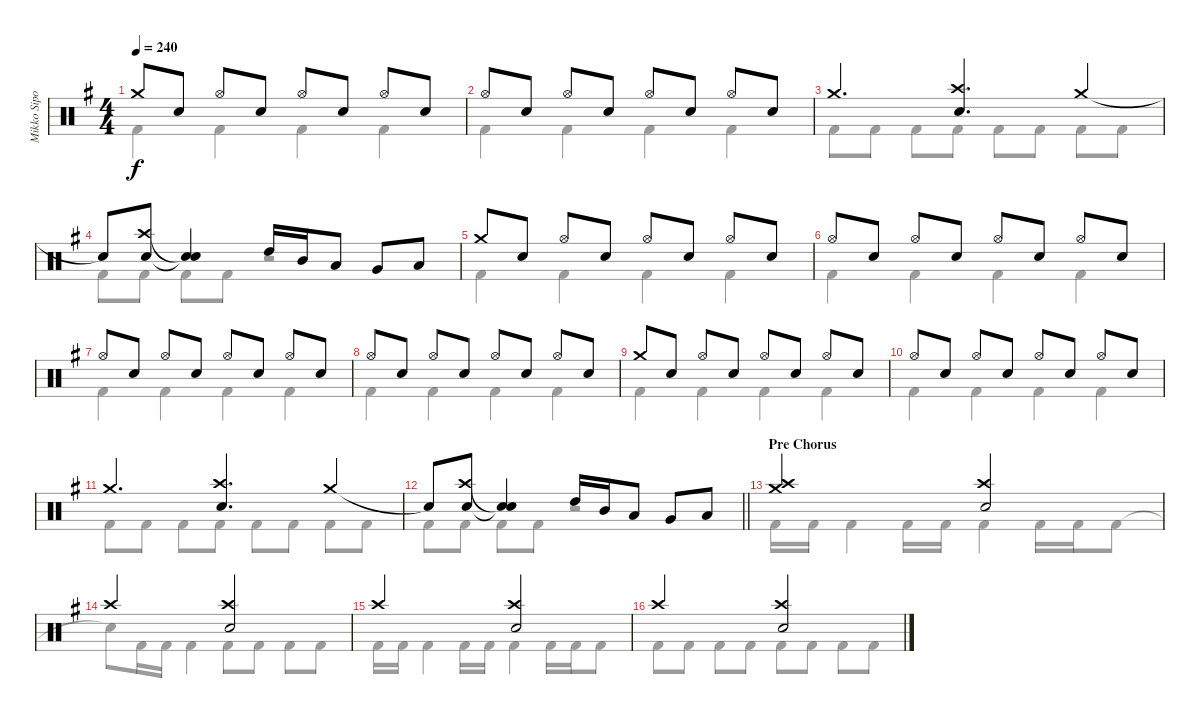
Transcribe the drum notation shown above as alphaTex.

\track ("Mikko Sipola (drums)" "Mikko Sipo") {instrument percussion}
\staff {score}
\articulation defaults
\voice
\ts (4 4)
\tempo 240
\clef neutral
\ks eminor "Crash medium (hit)".8{dy f} "Electric Snare (hit)".8 "Hi-Hat (open)".8 "Electric Snare (hit)".8 "Hi-Hat (open)".8 "Electric Snare (hit)".8 "Hi-Hat (open)".8 "Electric Snare (hit)".8
|
"Hi-Hat (open)".8 "Electric Snare (hit)".8 "Hi-Hat (open)".8 "Electric Snare (hit)".8 "Hi-Hat (open)".8 "Electric Snare (hit)".8 "Hi-Hat (open)".8 "Electric Snare (hit)".8 |
"Crash medium (hit)".4{d} ("Crash high (hit)" "Electric Snare (hit)").4{d} "Crash medium (hit)".4 |
"Snare (hit)"{t}.8 ("Crash high (hit)" "Electric Snare (hit)").8 ("Snare (hit)"{t} "Snare (hit)"{t}).4 "High Tom (hit)".16 "Mid Tom (hit)".16 "Low Tom (hit)".8 "Very Low Tom (hit)".8 "Low Floor Tom (hit)".8 |
"Crash medium (hit)".8 "Electric Snare (hit)".8 "Hi-Hat (open)".8 "Electric Snare (hit)".8 "Hi-Hat (open)".8 "Electric Snare (hit)".8 "Hi-Hat (open)".8 "Electric Snare (hit)".8 |
"Hi-Hat (open)".8 "Electric Snare (hit)".8 "Hi-Hat (open)".8 "Electric Snare (hit)".8 "Hi-Hat (open)".8 "Electric Snare (hit)".8 "Hi-Hat (open)".8 "Electric Snare (hit)".8 |
"Hi-Hat (open)".8 "Electric Snare (hit)".8 "Hi-Hat (open)".8 "Electric Snare (hit)".8 "Hi-Hat (open)".8 "Electric Snare (hit)".8 "Hi-Hat (open)".8 "Electric Snare (hit)".8 |
"Hi-Hat (open)".8 "Electric Snare (hit)".8 "Hi-Hat (open)".8 "Electric Snare (hit)".8 "Hi-Hat (open)".8 "Electric Snare (hit)".8 "Hi-Hat (open)".8 "Electric Snare (hit)".8 |
"Crash medium (hit)".8 "Electric Snare (hit)".8 "Hi-Hat (open)".8 "Electric Snare (hit)".8 "Hi-Hat (open)".8 "Electric Snare (hit)".8 "Hi-Hat (open)".8 "Electric Snare (hit)".8 |
"Hi-Hat (open)".8 "Electric Snare (hit)".8 "Hi-Hat (open)".8 "Electric Snare (hit)".8 "Hi-Hat (open)".8 "Electric Snare (hit)".8 "Hi-Hat (open)".8 "Electric Snare (hit)".8 |
"Crash medium (hit)".4{d} ("Crash high (hit)" "Electric Snare (hit)").4{d} "Crash medium (hit)".4 |
\barLineRight lightlight "Snare (hit)"{t}.8
("Crash high (hit)" "Electric Snare (hit)").8 ("Snare (hit)"{t} "Snare (hit)"{t}).4 "High Tom (hit)".16 "Mid Tom (hit)".16 "Low Tom (hit)".8 "Very Low Tom (hit)".8 "Low Floor Tom (hit)".8 |
\section ("" "Pre Chorus")
("Crash medium (hit)" "Crash high (hit)").2 ("Crash high (hit)" "Electric Snare (hit)").2 |
"Crash high (hit)".2 ("Electric Snare (hit)" "Crash high (hit)").2 |
"Crash high (hit)".2 ("Electric Snare (hit)" "Crash high (hit)").2 |
"Crash high (hit)".2 ("Electric Snare (hit)" "Crash high (hit)").2
\voice
\clef neutral
\ottava regular
\simile none
\ks eminor "Kick (hit) 2".4{dy f} "Kick (hit) 2".4 "Kick (hit) 2".4 "Kick (hit) 2".4
|
"Kick (hit) 2".4 "Kick (hit) 2".4 "Kick (hit) 2".4 "Kick (hit) 2".4 |
"Kick (hit) 2".8 "Kick (hit) 2".8 "Kick (hit) 2".8 "Kick (hit) 2".8 "Kick (hit) 2".8 "Kick (hit) 2".8 "Kick (hit) 2".8 "Kick (hit) 2".8 |
"Kick (hit) 2".8 "Kick (hit) 2".8 "Kick (hit) 2".8 "Kick (hit) 2".8 r.2 |
"Kick (hit) 2".4 "Kick (hit) 2".4 "Kick (hit) 2".4 "Kick (hit) 2".4 |
"Kick (hit) 2".4 "Kick (hit) 2".4 "Kick (hit) 2".4 "Kick (hit) 2".4 |
"Kick (hit) 2".4 "Kick (hit) 2".4 "Kick (hit) 2".4 "Kick (hit) 2".4 |
"Kick (hit) 2".4 "Kick (hit) 2".4 "Kick (hit) 2".4 "Kick (hit) 2".4 |
"Kick (hit) 2".4 "Kick (hit) 2".4 "Kick (hit) 2".4 "Kick (hit) 2".4 |
"Kick (hit) 2".4 "Kick (hit) 2".4 "Kick (hit) 2".4 "Kick (hit) 2".4 |
"Kick (hit) 2".8 "Kick (hit) 2".8 "Kick (hit) 2".8 "Kick (hit) 2".8 "Kick (hit) 2".8 "Kick (hit) 2".8 "Kick (hit) 2".8 "Kick (hit) 2".8 |
\barLineRight lightlight "Kick (hit) 2".8 "Kick (hit) 2".8 "Kick (hit) 2".8 "Kick (hit) 2".8
r.2 |
"Kick (hit) 2".16 "Kick (hit) 2".16 "Kick (hit) 2".4 "Kick (hit) 2".16 "Kick (hit) 2".16 "Kick (hit) 2".4 "Kick (hit) 2".16 "Kick (hit) 2".16 "Kick (hit) 2".8 |
"Snare (hit)"{t}.8 "Kick (hit) 2".16 "Kick (hit) 2".16 "Kick (hit) 2".4 "Kick (hit) 2".8 "Kick (hit) 2".8 "Kick (hit) 2".8 "Kick (hit) 2".8 |
"Kick (hit) 2".16 "Kick (hit) 2".16 "Kick (hit) 2".4 "Kick (hit) 2".16 "Kick (hit) 2".16 "Kick (hit) 2".4 "Kick (hit) 2".16 "Kick (hit) 2".16 "Kick (hit) 2".8 |
"Kick (hit) 2".8 "Kick (hit) 2".8 "Kick (hit) 2".8 "Kick (hit) 2".8 "Kick (hit) 2".8 "Kick (hit) 2".8 "Kick (hit) 2".8 "Kick (hit) 2".8
